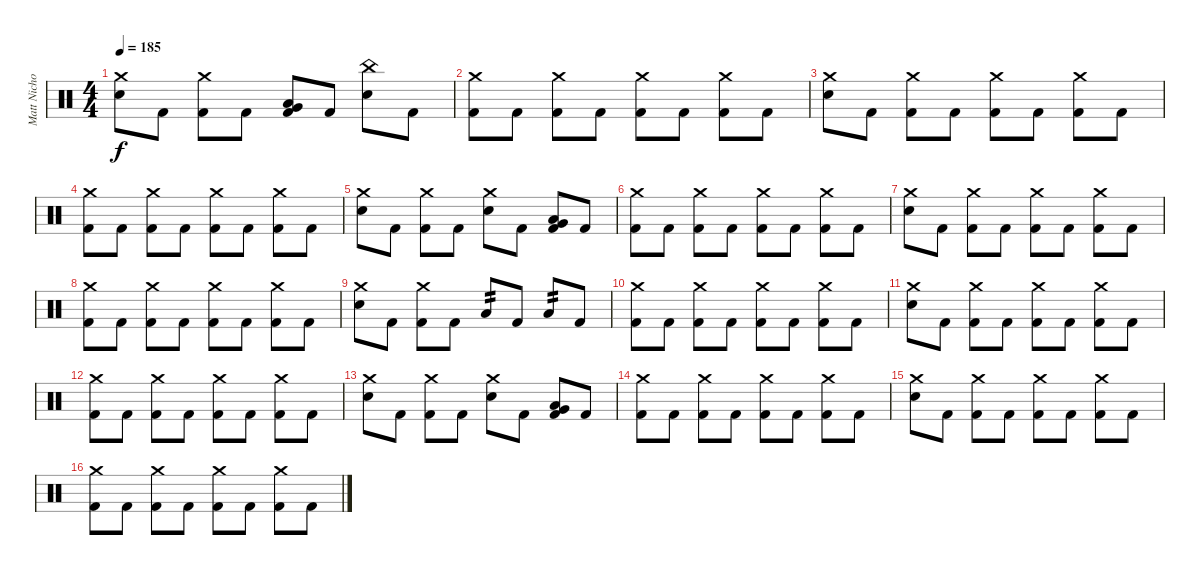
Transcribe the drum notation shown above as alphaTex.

\track ("Matt Nichols" "Matt Nicho") {instrument percussion}
\staff {score}
\articulation defaults
\ts (4 4)
\tempo 185
\clef neutral
\ks c
("Crash medium (hit)" "Electric Snare (hit)").8{dy f} "Kick (hit) 2".8 ("Crash medium (hit)" "Kick (hit) 2").8 "Kick (hit) 2".8 ("Low Floor Tom (hit)" "Very Low Tom (hit)" "Kick (hit) 2").8 "Kick (hit) 2".8 ("China (hit)" "Electric Snare (hit)").8 "Kick (hit) 2".8 |
("Crash medium (hit)" "Kick (hit) 2").8 "Kick (hit) 2".8 ("Crash medium (hit)" "Kick (hit) 2").8 "Kick (hit) 2".8 ("Crash medium (hit)" "Kick (hit) 2").8 "Kick (hit) 2".8 ("Crash medium (hit)" "Kick (hit) 2").8 "Kick (hit) 2".8 |
("Crash medium (hit)" "Electric Snare (hit)").8 "Kick (hit) 2".8 ("Crash medium (hit)" "Kick (hit) 2").8 "Kick (hit) 2".8 ("Crash medium (hit)" "Kick (hit) 2").8 "Kick (hit) 2".8 ("Crash medium (hit)" "Kick (hit) 2").8 "Kick (hit) 2".8 |
("Crash medium (hit)" "Kick (hit) 2").8 "Kick (hit) 2".8 ("Crash medium (hit)" "Kick (hit) 2").8 "Kick (hit) 2".8 ("Crash medium (hit)" "Kick (hit) 2").8 "Kick (hit) 2".8 ("Crash medium (hit)" "Kick (hit) 2").8 "Kick (hit) 2".8 |
("Crash medium (hit)" "Electric Snare (hit)").8 "Kick (hit) 2".8 ("Crash medium (hit)" "Kick (hit) 2").8 "Kick (hit) 2".8 ("Crash medium (hit)" "Electric Snare (hit)").8 "Kick (hit) 2".8 ("Low Floor Tom (hit)" "Very Low Tom (hit)" "Kick (hit) 2").8 "Kick (hit) 2".8 |
("Crash medium (hit)" "Kick (hit) 2").8 "Kick (hit) 2".8 ("Crash medium (hit)" "Kick (hit) 2").8 "Kick (hit) 2".8 ("Crash medium (hit)" "Kick (hit) 2").8 "Kick (hit) 2".8 ("Crash medium (hit)" "Kick (hit) 2").8 "Kick (hit) 2".8 |
("Crash medium (hit)" "Electric Snare (hit)").8 "Kick (hit) 2".8 ("Crash medium (hit)" "Kick (hit) 2").8 "Kick (hit) 2".8 ("Crash medium (hit)" "Kick (hit) 2").8 "Kick (hit) 2".8 ("Crash medium (hit)" "Kick (hit) 2").8 "Kick (hit) 2".8 |
("Crash medium (hit)" "Kick (hit) 2").8 "Kick (hit) 2".8 ("Crash medium (hit)" "Kick (hit) 2").8 "Kick (hit) 2".8 ("Crash medium (hit)" "Kick (hit) 2").8 "Kick (hit) 2".8 ("Crash medium (hit)" "Kick (hit) 2").8 "Kick (hit) 2".8 |
("Crash medium (hit)" "Electric Snare (hit)").8 "Kick (hit) 2".8 ("Crash medium (hit)" "Kick (hit) 2").8 "Kick (hit) 2".8 "Low Floor Tom (hit)".8{tp 2} "Kick (hit) 2".8 "Low Floor Tom (hit)".8{tp 2} "Kick (hit) 2".8 |
("Crash medium (hit)" "Kick (hit) 2").8 "Kick (hit) 2".8 ("Crash medium (hit)" "Kick (hit) 2").8 "Kick (hit) 2".8 ("Crash medium (hit)" "Kick (hit) 2").8 "Kick (hit) 2".8 ("Crash medium (hit)" "Kick (hit) 2").8 "Kick (hit) 2".8 |
("Crash medium (hit)" "Electric Snare (hit)").8 "Kick (hit) 2".8 ("Crash medium (hit)" "Kick (hit) 2").8 "Kick (hit) 2".8 ("Crash medium (hit)" "Kick (hit) 2").8 "Kick (hit) 2".8 ("Crash medium (hit)" "Kick (hit) 2").8 "Kick (hit) 2".8 |
("Crash medium (hit)" "Kick (hit) 2").8 "Kick (hit) 2".8 ("Crash medium (hit)" "Kick (hit) 2").8 "Kick (hit) 2".8 ("Crash medium (hit)" "Kick (hit) 2").8 "Kick (hit) 2".8 ("Crash medium (hit)" "Kick (hit) 2").8 "Kick (hit) 2".8 |
("Crash medium (hit)" "Electric Snare (hit)").8 "Kick (hit) 2".8 ("Crash medium (hit)" "Kick (hit) 2").8 "Kick (hit) 2".8 ("Crash medium (hit)" "Electric Snare (hit)").8 "Kick (hit) 2".8 ("Low Floor Tom (hit)" "Very Low Tom (hit)" "Kick (hit) 2").8 "Kick (hit) 2".8 |
("Crash medium (hit)" "Kick (hit) 2").8 "Kick (hit) 2".8 ("Crash medium (hit)" "Kick (hit) 2").8 "Kick (hit) 2".8 ("Crash medium (hit)" "Kick (hit) 2").8 "Kick (hit) 2".8 ("Crash medium (hit)" "Kick (hit) 2").8 "Kick (hit) 2".8 |
("Crash medium (hit)" "Electric Snare (hit)").8 "Kick (hit) 2".8 ("Crash medium (hit)" "Kick (hit) 2").8 "Kick (hit) 2".8 ("Crash medium (hit)" "Kick (hit) 2").8 "Kick (hit) 2".8 ("Crash medium (hit)" "Kick (hit) 2").8 "Kick (hit) 2".8 |
("Crash medium (hit)" "Kick (hit) 2").8 "Kick (hit) 2".8 ("Crash medium (hit)" "Kick (hit) 2").8 "Kick (hit) 2".8 ("Crash medium (hit)" "Kick (hit) 2").8 "Kick (hit) 2".8 ("Crash medium (hit)" "Kick (hit) 2").8 "Kick (hit) 2".8
